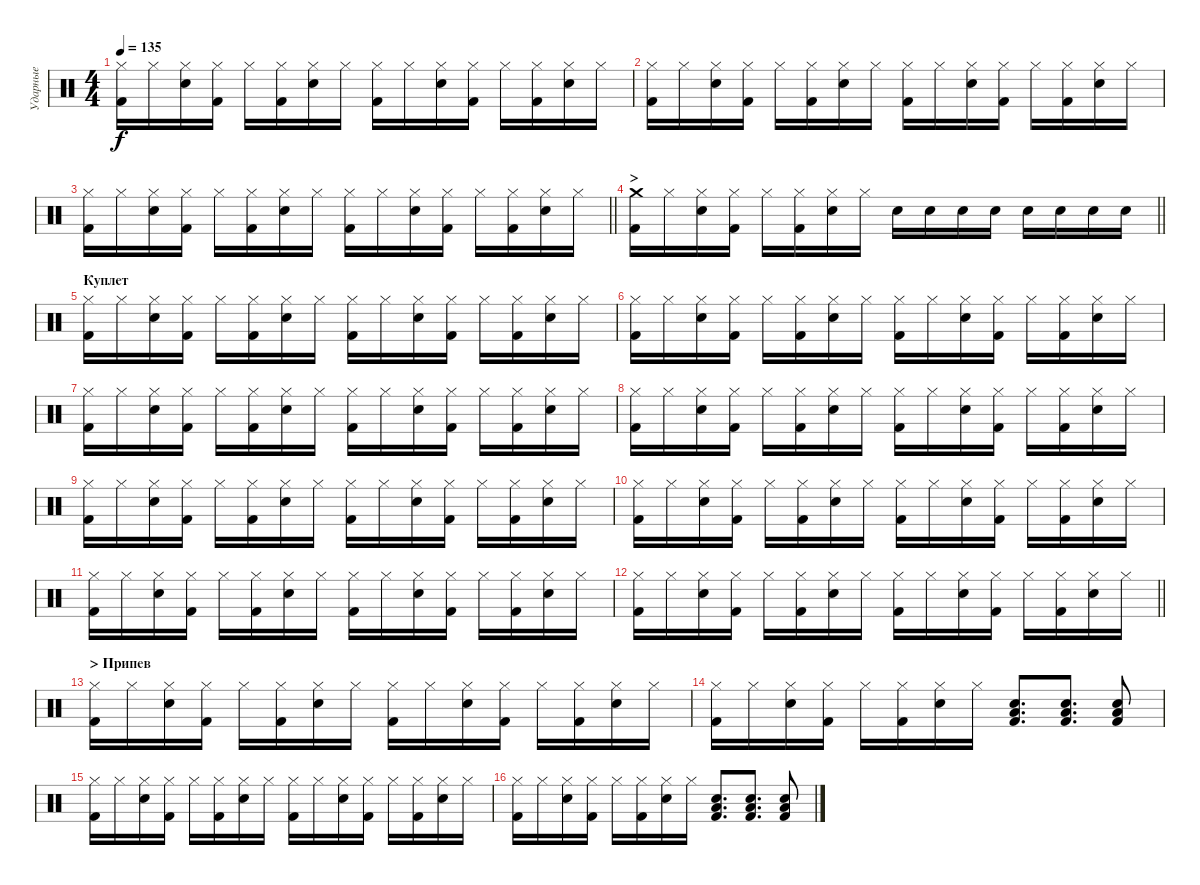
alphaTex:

\track ("Ударные" "Ударные") {instrument percussion}
\staff {score}
\articulation defaults
\ts (4 4)
\tempo 135
\clef neutral
\ks c
("Hi-Hat (closed)" "Kick (hit) 2").16{dy f} "Hi-Hat (closed)".16 ("Hi-Hat (closed)" "Snare (hit) 2").16 ("Hi-Hat (closed)" "Kick (hit) 2").16 "Hi-Hat (closed)".16 ("Hi-Hat (closed)" "Kick (hit) 2").16 ("Hi-Hat (closed)" "Snare (hit) 2").16 "Hi-Hat (closed)".16 ("Hi-Hat (closed)" "Kick (hit) 2").16 "Hi-Hat (closed)".16 ("Hi-Hat (closed)" "Snare (hit) 2").16 ("Hi-Hat (closed)" "Kick (hit) 2").16 "Hi-Hat (closed)".16 ("Hi-Hat (closed)" "Kick (hit) 2").16 ("Hi-Hat (closed)" "Snare (hit) 2").16 "Hi-Hat (closed)".16 |
("Hi-Hat (closed)" "Kick (hit) 2").16 "Hi-Hat (closed)".16 ("Hi-Hat (closed)" "Snare (hit) 2").16 ("Hi-Hat (closed)" "Kick (hit) 2").16 "Hi-Hat (closed)".16 ("Hi-Hat (closed)" "Kick (hit) 2").16 ("Hi-Hat (closed)" "Snare (hit) 2").16 "Hi-Hat (closed)".16 ("Hi-Hat (closed)" "Kick (hit) 2").16 "Hi-Hat (closed)".16 ("Hi-Hat (closed)" "Snare (hit) 2").16 ("Hi-Hat (closed)" "Kick (hit) 2").16 "Hi-Hat (closed)".16 ("Hi-Hat (closed)" "Kick (hit) 2").16 ("Hi-Hat (closed)" "Snare (hit) 2").16 "Hi-Hat (closed)".16 |
\barLineRight lightlight
("Hi-Hat (closed)" "Kick (hit) 2").16 "Hi-Hat (closed)".16 ("Hi-Hat (closed)" "Snare (hit) 2").16 ("Hi-Hat (closed)" "Kick (hit) 2").16 "Hi-Hat (closed)".16 ("Hi-Hat (closed)" "Kick (hit) 2").16 ("Hi-Hat (closed)" "Snare (hit) 2").16 "Hi-Hat (closed)".16 ("Hi-Hat (closed)" "Kick (hit) 2").16 "Hi-Hat (closed)".16 ("Hi-Hat (closed)" "Snare (hit) 2").16 ("Hi-Hat (closed)" "Kick (hit) 2").16 "Hi-Hat (closed)".16 ("Hi-Hat (closed)" "Kick (hit) 2").16 ("Hi-Hat (closed)" "Snare (hit) 2").16 "Hi-Hat (closed)".16 |
\section ("" "> ")
\barLineRight lightlight
("Crash medium (hit)" "Kick (hit) 2").16 "Hi-Hat (closed)".16 ("Hi-Hat (closed)" "Snare (hit) 2").16 ("Hi-Hat (closed)" "Kick (hit) 2").16 "Hi-Hat (closed)".16 ("Hi-Hat (closed)" "Kick (hit) 2").16 ("Hi-Hat (closed)" "Snare (hit) 2").16 "Hi-Hat (closed)".16 "Snare (hit) 2".16 "Snare (hit) 2".16 "Snare (hit) 2".16 "Snare (hit) 2".16 "Snare (hit) 2".16 "Snare (hit) 2".16 "Snare (hit) 2".16 "Snare (hit) 2".16 |
\section ("" "Куплет")
("Hi-Hat (closed)" "Kick (hit) 2").16 "Hi-Hat (closed)".16 ("Hi-Hat (closed)" "Snare (hit) 2").16 ("Hi-Hat (closed)" "Kick (hit) 2").16 "Hi-Hat (closed)".16 ("Hi-Hat (closed)" "Kick (hit) 2").16 ("Hi-Hat (closed)" "Snare (hit) 2").16 "Hi-Hat (closed)".16 ("Hi-Hat (closed)" "Kick (hit) 2").16 "Hi-Hat (closed)".16 ("Hi-Hat (closed)" "Snare (hit) 2").16 ("Hi-Hat (closed)" "Kick (hit) 2").16 "Hi-Hat (closed)".16 ("Hi-Hat (closed)" "Kick (hit) 2").16 ("Hi-Hat (closed)" "Snare (hit) 2").16 "Hi-Hat (closed)".16 |
("Hi-Hat (closed)" "Kick (hit) 2").16 "Hi-Hat (closed)".16 ("Hi-Hat (closed)" "Snare (hit) 2").16 ("Hi-Hat (closed)" "Kick (hit) 2").16 "Hi-Hat (closed)".16 ("Hi-Hat (closed)" "Kick (hit) 2").16 ("Hi-Hat (closed)" "Snare (hit) 2").16 "Hi-Hat (closed)".16 ("Hi-Hat (closed)" "Kick (hit) 2").16 "Hi-Hat (closed)".16 ("Hi-Hat (closed)" "Snare (hit) 2").16 ("Hi-Hat (closed)" "Kick (hit) 2").16 "Hi-Hat (closed)".16 ("Hi-Hat (closed)" "Kick (hit) 2").16 ("Hi-Hat (closed)" "Snare (hit) 2").16 "Hi-Hat (closed)".16 |
("Hi-Hat (closed)" "Kick (hit) 2").16 "Hi-Hat (closed)".16 ("Hi-Hat (closed)" "Snare (hit) 2").16 ("Hi-Hat (closed)" "Kick (hit) 2").16 "Hi-Hat (closed)".16 ("Hi-Hat (closed)" "Kick (hit) 2").16 ("Hi-Hat (closed)" "Snare (hit) 2").16 "Hi-Hat (closed)".16 ("Hi-Hat (closed)" "Kick (hit) 2").16 "Hi-Hat (closed)".16 ("Hi-Hat (closed)" "Snare (hit) 2").16 ("Hi-Hat (closed)" "Kick (hit) 2").16 "Hi-Hat (closed)".16 ("Hi-Hat (closed)" "Kick (hit) 2").16 ("Hi-Hat (closed)" "Snare (hit) 2").16 "Hi-Hat (closed)".16 |
("Hi-Hat (closed)" "Kick (hit) 2").16 "Hi-Hat (closed)".16 ("Hi-Hat (closed)" "Snare (hit) 2").16 ("Hi-Hat (closed)" "Kick (hit) 2").16 "Hi-Hat (closed)".16 ("Hi-Hat (closed)" "Kick (hit) 2").16 ("Hi-Hat (closed)" "Snare (hit) 2").16 "Hi-Hat (closed)".16 ("Hi-Hat (closed)" "Kick (hit) 2").16 "Hi-Hat (closed)".16 ("Hi-Hat (closed)" "Snare (hit) 2").16 ("Hi-Hat (closed)" "Kick (hit) 2").16 "Hi-Hat (closed)".16 ("Hi-Hat (closed)" "Kick (hit) 2").16 ("Hi-Hat (closed)" "Snare (hit) 2").16 "Hi-Hat (closed)".16 |
("Hi-Hat (closed)" "Kick (hit) 2").16 "Hi-Hat (closed)".16 ("Hi-Hat (closed)" "Snare (hit) 2").16 ("Hi-Hat (closed)" "Kick (hit) 2").16 "Hi-Hat (closed)".16 ("Hi-Hat (closed)" "Kick (hit) 2").16 ("Hi-Hat (closed)" "Snare (hit) 2").16 "Hi-Hat (closed)".16 ("Hi-Hat (closed)" "Kick (hit) 2").16 "Hi-Hat (closed)".16 ("Hi-Hat (closed)" "Snare (hit) 2").16 ("Hi-Hat (closed)" "Kick (hit) 2").16 "Hi-Hat (closed)".16 ("Hi-Hat (closed)" "Kick (hit) 2").16 ("Hi-Hat (closed)" "Snare (hit) 2").16 "Hi-Hat (closed)".16 |
("Hi-Hat (closed)" "Kick (hit) 2").16 "Hi-Hat (closed)".16 ("Hi-Hat (closed)" "Snare (hit) 2").16 ("Hi-Hat (closed)" "Kick (hit) 2").16 "Hi-Hat (closed)".16 ("Hi-Hat (closed)" "Kick (hit) 2").16 ("Hi-Hat (closed)" "Snare (hit) 2").16 "Hi-Hat (closed)".16 ("Hi-Hat (closed)" "Kick (hit) 2").16 "Hi-Hat (closed)".16 ("Hi-Hat (closed)" "Snare (hit) 2").16 ("Hi-Hat (closed)" "Kick (hit) 2").16 "Hi-Hat (closed)".16 ("Hi-Hat (closed)" "Kick (hit) 2").16 ("Hi-Hat (closed)" "Snare (hit) 2").16 "Hi-Hat (closed)".16 |
("Hi-Hat (closed)" "Kick (hit) 2").16 "Hi-Hat (closed)".16 ("Hi-Hat (closed)" "Snare (hit) 2").16 ("Hi-Hat (closed)" "Kick (hit) 2").16 "Hi-Hat (closed)".16 ("Hi-Hat (closed)" "Kick (hit) 2").16 ("Hi-Hat (closed)" "Snare (hit) 2").16 "Hi-Hat (closed)".16 ("Hi-Hat (closed)" "Kick (hit) 2").16 "Hi-Hat (closed)".16 ("Hi-Hat (closed)" "Snare (hit) 2").16 ("Hi-Hat (closed)" "Kick (hit) 2").16 "Hi-Hat (closed)".16 ("Hi-Hat (closed)" "Kick (hit) 2").16 ("Hi-Hat (closed)" "Snare (hit) 2").16 "Hi-Hat (closed)".16 |
\barLineRight lightlight
("Hi-Hat (closed)" "Kick (hit) 2").16 "Hi-Hat (closed)".16 ("Hi-Hat (closed)" "Snare (hit) 2").16 ("Hi-Hat (closed)" "Kick (hit) 2").16 "Hi-Hat (closed)".16 ("Hi-Hat (closed)" "Kick (hit) 2").16 ("Hi-Hat (closed)" "Snare (hit) 2").16 "Hi-Hat (closed)".16 ("Hi-Hat (closed)" "Kick (hit) 2").16 "Hi-Hat (closed)".16 ("Hi-Hat (closed)" "Snare (hit) 2").16 ("Hi-Hat (closed)" "Kick (hit) 2").16 "Hi-Hat (closed)".16 ("Hi-Hat (closed)" "Kick (hit) 2").16 ("Hi-Hat (closed)" "Snare (hit) 2").16 "Hi-Hat (closed)".16 |
\section ("" "> Припев")
("Hi-Hat (closed)" "Kick (hit) 2").16 "Hi-Hat (closed)".16 ("Hi-Hat (closed)" "Snare (hit) 2").16 ("Hi-Hat (closed)" "Kick (hit) 2").16 "Hi-Hat (closed)".16 ("Hi-Hat (closed)" "Kick (hit) 2").16 ("Hi-Hat (closed)" "Snare (hit) 2").16 "Hi-Hat (closed)".16 ("Hi-Hat (closed)" "Kick (hit) 2").16 "Hi-Hat (closed)".16 ("Hi-Hat (closed)" "Snare (hit) 2").16 ("Hi-Hat (closed)" "Kick (hit) 2").16 "Hi-Hat (closed)".16 ("Hi-Hat (closed)" "Kick (hit) 2").16 ("Hi-Hat (closed)" "Snare (hit) 2").16 "Hi-Hat (closed)".16 |
("Hi-Hat (closed)" "Kick (hit) 2").16 "Hi-Hat (closed)".16 ("Hi-Hat (closed)" "Snare (hit) 2").16 ("Hi-Hat (closed)" "Kick (hit) 2").16 "Hi-Hat (closed)".16 ("Hi-Hat (closed)" "Kick (hit) 2").16 ("Hi-Hat (closed)" "Snare (hit) 2").16 "Hi-Hat (closed)".16 ("Snare (hit) 2" "Low Tom (hit)" "Kick (hit) 2").8{d} ("Snare (hit) 2" "Low Tom (hit)" "Kick (hit) 2").8{d} ("Snare (hit) 2" "Low Tom (hit)" "Kick (hit) 2").8 |
("Hi-Hat (closed)" "Kick (hit) 2").16 "Hi-Hat (closed)".16 ("Hi-Hat (closed)" "Snare (hit) 2").16 ("Hi-Hat (closed)" "Kick (hit) 2").16 "Hi-Hat (closed)".16 ("Hi-Hat (closed)" "Kick (hit) 2").16 ("Hi-Hat (closed)" "Snare (hit) 2").16 "Hi-Hat (closed)".16 ("Hi-Hat (closed)" "Kick (hit) 2").16 "Hi-Hat (closed)".16 ("Hi-Hat (closed)" "Snare (hit) 2").16 ("Hi-Hat (closed)" "Kick (hit) 2").16 "Hi-Hat (closed)".16 ("Hi-Hat (closed)" "Kick (hit) 2").16 ("Hi-Hat (closed)" "Snare (hit) 2").16 "Hi-Hat (closed)".16 |
("Hi-Hat (closed)" "Kick (hit) 2").16 "Hi-Hat (closed)".16 ("Hi-Hat (closed)" "Snare (hit) 2").16 ("Hi-Hat (closed)" "Kick (hit) 2").16 "Hi-Hat (closed)".16 ("Hi-Hat (closed)" "Kick (hit) 2").16 ("Hi-Hat (closed)" "Snare (hit) 2").16 "Hi-Hat (closed)".16 ("Snare (hit) 2" "Low Tom (hit)" "Kick (hit) 2").8{d} ("Snare (hit) 2" "Low Tom (hit)" "Kick (hit) 2").8{d} ("Snare (hit) 2" "Low Tom (hit)" "Kick (hit) 2").8
